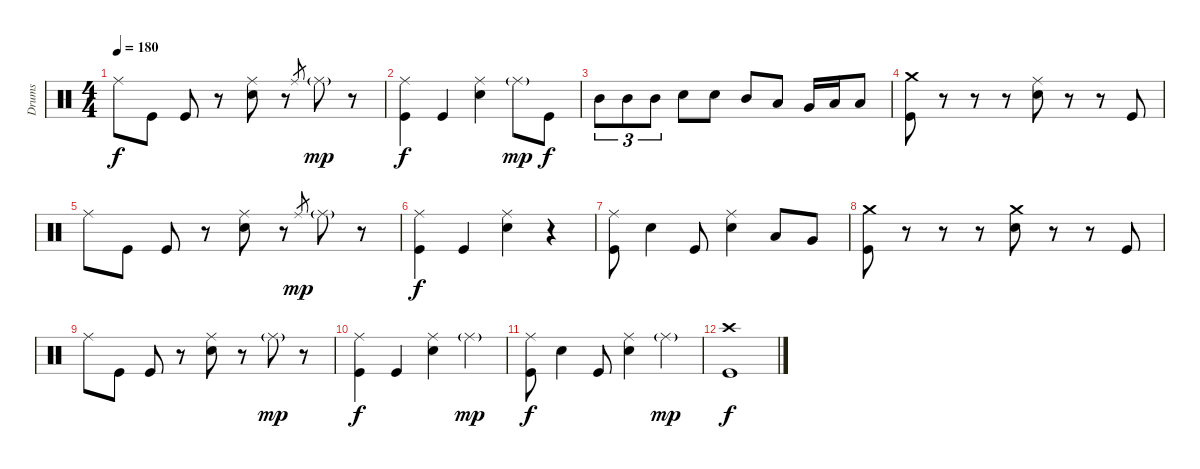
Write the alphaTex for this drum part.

\track ("Drums" "Drums") {instrument percussion}
\staff {score}
\articulation defaults
\ts (4 4)
\tempo 180
\clef neutral
\ks c "Ride (middle)".8{dy f} "Kick (hit)".8 "Kick (hit)".8
r.8 ("Ride (middle)" "Electric Snare (hit)").8 r.8 "Ride (middle)".8{gr} "Ride (middle)"{g}.8{dy mp} r.8 |
("Ride (middle)" "Kick (hit)").4{dy f} "Kick (hit)".4 ("Ride (middle)" "Electric Snare (hit)").4 "Ride (middle)"{g}.8{dy mp} "Kick (hit)".8{dy f} |
"Mid Tom (hit)".8{tu (3 2)} "Mid Tom (hit)".8{tu (3 2)} "Mid Tom (hit)".8{tu (3 2)} "Electric Snare (hit)".8 "Electric Snare (hit)".8 "Mid Tom (hit)".8 "Low Tom (hit)".8 "Very Low Tom (hit)".16 "Low Tom (hit)".16 "Low Floor Tom (hit)".8 |
("Crash medium (hit)" "Kick (hit)").8 r.8 r.8 r.8 ("Ride (middle)" "Electric Snare (hit)").8 r.8 r.8 "Kick (hit)".8 |
"Ride (middle)".8 "Kick (hit)".8 "Kick (hit)".8 r.8 ("Ride (middle)" "Electric Snare (hit)").8 r.8 "Ride (middle)".8{gr dy mp} "Ride (middle)"{g}.8 r.8 |
("Ride (middle)" "Kick (hit)").4{dy f} "Kick (hit)".4 ("Ride (middle)" "Electric Snare (hit)").4 r.4 |
("Ride (middle)" "Kick (hit)").8 "Electric Snare (hit)".4 "Kick (hit)".8 ("Ride (middle)" "Electric Snare (hit)").4 "Low Tom (hit)".8 "Very Low Tom (hit)".8 |
("Crash medium (hit)" "Kick (hit)").8 r.8 r.8 r.8 ("Crash medium (hit)" "Electric Snare (hit)").8 r.8 r.8 "Kick (hit)".8 |
"Ride (middle)".8 "Kick (hit)".8 "Kick (hit)".8 r.8 ("Ride (middle)" "Electric Snare (hit)").8 r.8 "Ride (middle)"{g}.8{dy mp} r.8 |
("Ride (middle)" "Kick (hit)").4{dy f} "Kick (hit)".4 ("Ride (middle)" "Electric Snare (hit)").4 "Ride (middle)"{g}.4{dy mp} |
("Ride (middle)" "Kick (hit)").8{dy f} "Electric Snare (hit)".4 "Kick (hit)".8 ("Ride (middle)" "Electric Snare (hit)").4 "Ride (middle)"{g}.4{dy mp} |
("Crash high (hit)" "Kick (hit)").1{dy f}
